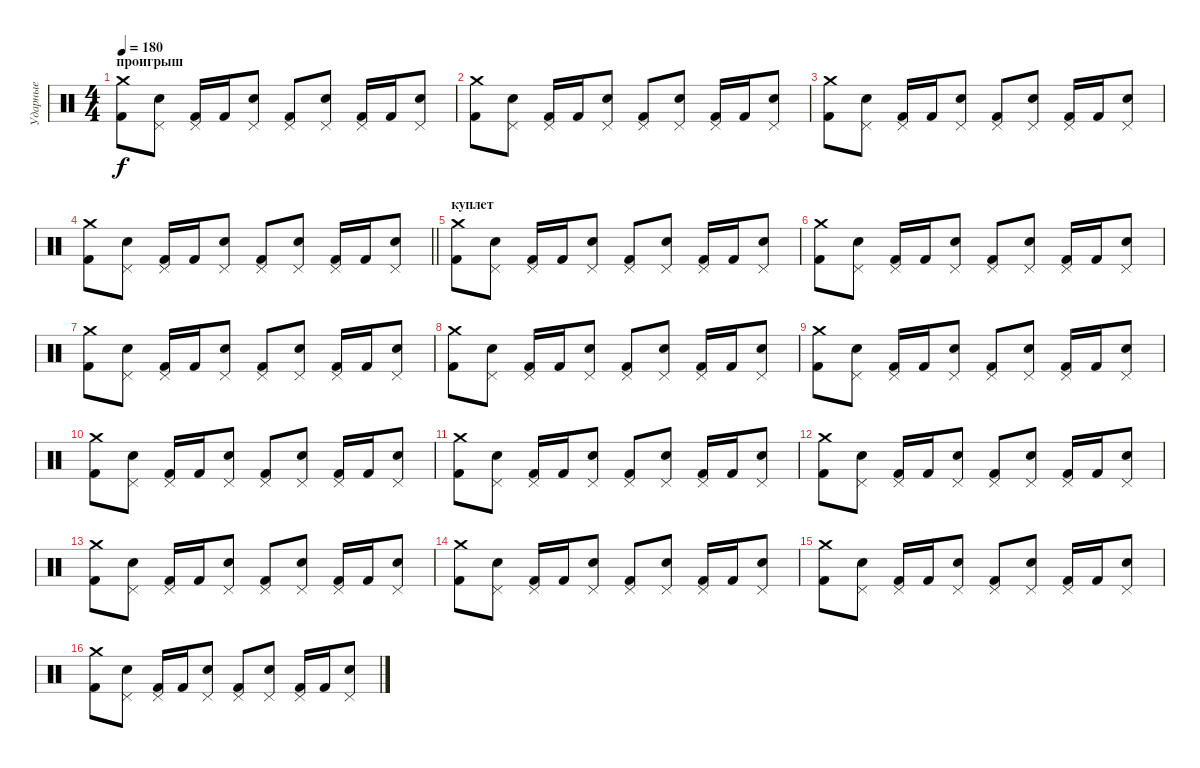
\track ("Ударные" "Ударные") {instrument percussion}
\staff {score}
\articulation defaults
\ts (4 4)
\section ("" "проигрыш")
\tempo 180
\clef neutral
\ks c
("Crash medium (hit)" "Kick (hit) 2").8{dy f} ("Pedal Hi-Hat (hit)" "Electric Snare (hit)").8 ("Pedal Hi-Hat (hit)" "Kick (hit) 2").16 "Kick (hit) 2".16 ("Pedal Hi-Hat (hit)" "Electric Snare (hit)").8 ("Pedal Hi-Hat (hit)" "Kick (hit) 2").8 ("Pedal Hi-Hat (hit)" "Electric Snare (hit)").8 ("Pedal Hi-Hat (hit)" "Kick (hit) 2").16 "Kick (hit) 2".16 ("Pedal Hi-Hat (hit)" "Electric Snare (hit)").8 |
("Crash medium (hit)" "Kick (hit) 2").8 ("Pedal Hi-Hat (hit)" "Electric Snare (hit)").8 ("Pedal Hi-Hat (hit)" "Kick (hit) 2").16 "Kick (hit) 2".16 ("Pedal Hi-Hat (hit)" "Electric Snare (hit)").8 ("Pedal Hi-Hat (hit)" "Kick (hit) 2").8 ("Pedal Hi-Hat (hit)" "Electric Snare (hit)").8 ("Pedal Hi-Hat (hit)" "Kick (hit) 2").16 "Kick (hit) 2".16 ("Pedal Hi-Hat (hit)" "Electric Snare (hit)").8 |
("Crash medium (hit)" "Kick (hit) 2").8 ("Pedal Hi-Hat (hit)" "Electric Snare (hit)").8 ("Pedal Hi-Hat (hit)" "Kick (hit) 2").16 "Kick (hit) 2".16 ("Pedal Hi-Hat (hit)" "Electric Snare (hit)").8 ("Pedal Hi-Hat (hit)" "Kick (hit) 2").8 ("Pedal Hi-Hat (hit)" "Electric Snare (hit)").8 ("Pedal Hi-Hat (hit)" "Kick (hit) 2").16 "Kick (hit) 2".16 ("Pedal Hi-Hat (hit)" "Electric Snare (hit)").8 |
\barLineRight lightlight
("Crash medium (hit)" "Kick (hit) 2").8 ("Pedal Hi-Hat (hit)" "Electric Snare (hit)").8 ("Pedal Hi-Hat (hit)" "Kick (hit) 2").16 "Kick (hit) 2".16 ("Pedal Hi-Hat (hit)" "Electric Snare (hit)").8 ("Pedal Hi-Hat (hit)" "Kick (hit) 2").8 ("Pedal Hi-Hat (hit)" "Electric Snare (hit)").8 ("Pedal Hi-Hat (hit)" "Kick (hit) 2").16 "Kick (hit) 2".16 ("Pedal Hi-Hat (hit)" "Electric Snare (hit)").8 |
\section ("" "куплет")
("Crash medium (hit)" "Kick (hit) 2").8 ("Pedal Hi-Hat (hit)" "Electric Snare (hit)").8 ("Pedal Hi-Hat (hit)" "Kick (hit) 2").16 "Kick (hit) 2".16 ("Pedal Hi-Hat (hit)" "Electric Snare (hit)").8 ("Pedal Hi-Hat (hit)" "Kick (hit) 2").8 ("Pedal Hi-Hat (hit)" "Electric Snare (hit)").8 ("Pedal Hi-Hat (hit)" "Kick (hit) 2").16 "Kick (hit) 2".16 ("Pedal Hi-Hat (hit)" "Electric Snare (hit)").8 |
("Crash medium (hit)" "Kick (hit) 2").8 ("Pedal Hi-Hat (hit)" "Electric Snare (hit)").8 ("Pedal Hi-Hat (hit)" "Kick (hit) 2").16 "Kick (hit) 2".16 ("Pedal Hi-Hat (hit)" "Electric Snare (hit)").8 ("Pedal Hi-Hat (hit)" "Kick (hit) 2").8 ("Pedal Hi-Hat (hit)" "Electric Snare (hit)").8 ("Pedal Hi-Hat (hit)" "Kick (hit) 2").16 "Kick (hit) 2".16 ("Pedal Hi-Hat (hit)" "Electric Snare (hit)").8 |
("Crash medium (hit)" "Kick (hit) 2").8 ("Pedal Hi-Hat (hit)" "Electric Snare (hit)").8 ("Pedal Hi-Hat (hit)" "Kick (hit) 2").16 "Kick (hit) 2".16 ("Pedal Hi-Hat (hit)" "Electric Snare (hit)").8 ("Pedal Hi-Hat (hit)" "Kick (hit) 2").8 ("Pedal Hi-Hat (hit)" "Electric Snare (hit)").8 ("Pedal Hi-Hat (hit)" "Kick (hit) 2").16 "Kick (hit) 2".16 ("Pedal Hi-Hat (hit)" "Electric Snare (hit)").8 |
("Crash medium (hit)" "Kick (hit) 2").8 ("Pedal Hi-Hat (hit)" "Electric Snare (hit)").8 ("Pedal Hi-Hat (hit)" "Kick (hit) 2").16 "Kick (hit) 2".16 ("Pedal Hi-Hat (hit)" "Electric Snare (hit)").8 ("Pedal Hi-Hat (hit)" "Kick (hit) 2").8 ("Pedal Hi-Hat (hit)" "Electric Snare (hit)").8 ("Pedal Hi-Hat (hit)" "Kick (hit) 2").16 "Kick (hit) 2".16 ("Pedal Hi-Hat (hit)" "Electric Snare (hit)").8 |
("Crash medium (hit)" "Kick (hit) 2").8 ("Pedal Hi-Hat (hit)" "Electric Snare (hit)").8 ("Pedal Hi-Hat (hit)" "Kick (hit) 2").16 "Kick (hit) 2".16 ("Pedal Hi-Hat (hit)" "Electric Snare (hit)").8 ("Pedal Hi-Hat (hit)" "Kick (hit) 2").8 ("Pedal Hi-Hat (hit)" "Electric Snare (hit)").8 ("Pedal Hi-Hat (hit)" "Kick (hit) 2").16 "Kick (hit) 2".16 ("Pedal Hi-Hat (hit)" "Electric Snare (hit)").8 |
("Crash medium (hit)" "Kick (hit) 2").8 ("Pedal Hi-Hat (hit)" "Electric Snare (hit)").8 ("Pedal Hi-Hat (hit)" "Kick (hit) 2").16 "Kick (hit) 2".16 ("Pedal Hi-Hat (hit)" "Electric Snare (hit)").8 ("Pedal Hi-Hat (hit)" "Kick (hit) 2").8 ("Pedal Hi-Hat (hit)" "Electric Snare (hit)").8 ("Pedal Hi-Hat (hit)" "Kick (hit) 2").16 "Kick (hit) 2".16 ("Pedal Hi-Hat (hit)" "Electric Snare (hit)").8 |
("Crash medium (hit)" "Kick (hit) 2").8 ("Pedal Hi-Hat (hit)" "Electric Snare (hit)").8 ("Pedal Hi-Hat (hit)" "Kick (hit) 2").16 "Kick (hit) 2".16 ("Pedal Hi-Hat (hit)" "Electric Snare (hit)").8 ("Pedal Hi-Hat (hit)" "Kick (hit) 2").8 ("Pedal Hi-Hat (hit)" "Electric Snare (hit)").8 ("Pedal Hi-Hat (hit)" "Kick (hit) 2").16 "Kick (hit) 2".16 ("Pedal Hi-Hat (hit)" "Electric Snare (hit)").8 |
("Crash medium (hit)" "Kick (hit) 2").8 ("Pedal Hi-Hat (hit)" "Electric Snare (hit)").8 ("Pedal Hi-Hat (hit)" "Kick (hit) 2").16 "Kick (hit) 2".16 ("Pedal Hi-Hat (hit)" "Electric Snare (hit)").8 ("Pedal Hi-Hat (hit)" "Kick (hit) 2").8 ("Pedal Hi-Hat (hit)" "Electric Snare (hit)").8 ("Pedal Hi-Hat (hit)" "Kick (hit) 2").16 "Kick (hit) 2".16 ("Pedal Hi-Hat (hit)" "Electric Snare (hit)").8 |
("Crash medium (hit)" "Kick (hit) 2").8 ("Pedal Hi-Hat (hit)" "Electric Snare (hit)").8 ("Pedal Hi-Hat (hit)" "Kick (hit) 2").16 "Kick (hit) 2".16 ("Pedal Hi-Hat (hit)" "Electric Snare (hit)").8 ("Pedal Hi-Hat (hit)" "Kick (hit) 2").8 ("Pedal Hi-Hat (hit)" "Electric Snare (hit)").8 ("Pedal Hi-Hat (hit)" "Kick (hit) 2").16 "Kick (hit) 2".16 ("Pedal Hi-Hat (hit)" "Electric Snare (hit)").8 |
("Crash medium (hit)" "Kick (hit) 2").8 ("Pedal Hi-Hat (hit)" "Electric Snare (hit)").8 ("Pedal Hi-Hat (hit)" "Kick (hit) 2").16 "Kick (hit) 2".16 ("Pedal Hi-Hat (hit)" "Electric Snare (hit)").8 ("Pedal Hi-Hat (hit)" "Kick (hit) 2").8 ("Pedal Hi-Hat (hit)" "Electric Snare (hit)").8 ("Pedal Hi-Hat (hit)" "Kick (hit) 2").16 "Kick (hit) 2".16 ("Pedal Hi-Hat (hit)" "Electric Snare (hit)").8 |
("Crash medium (hit)" "Kick (hit) 2").8 ("Pedal Hi-Hat (hit)" "Electric Snare (hit)").8 ("Pedal Hi-Hat (hit)" "Kick (hit) 2").16 "Kick (hit) 2".16 ("Pedal Hi-Hat (hit)" "Electric Snare (hit)").8 ("Pedal Hi-Hat (hit)" "Kick (hit) 2").8 ("Pedal Hi-Hat (hit)" "Electric Snare (hit)").8 ("Pedal Hi-Hat (hit)" "Kick (hit) 2").16 "Kick (hit) 2".16 ("Pedal Hi-Hat (hit)" "Electric Snare (hit)").8 |
("Crash medium (hit)" "Kick (hit) 2").8 ("Pedal Hi-Hat (hit)" "Electric Snare (hit)").8 ("Pedal Hi-Hat (hit)" "Kick (hit) 2").16 "Kick (hit) 2".16 ("Pedal Hi-Hat (hit)" "Electric Snare (hit)").8 ("Pedal Hi-Hat (hit)" "Kick (hit) 2").8 ("Pedal Hi-Hat (hit)" "Electric Snare (hit)").8 ("Pedal Hi-Hat (hit)" "Kick (hit) 2").16 "Kick (hit) 2".16 ("Pedal Hi-Hat (hit)" "Electric Snare (hit)").8
